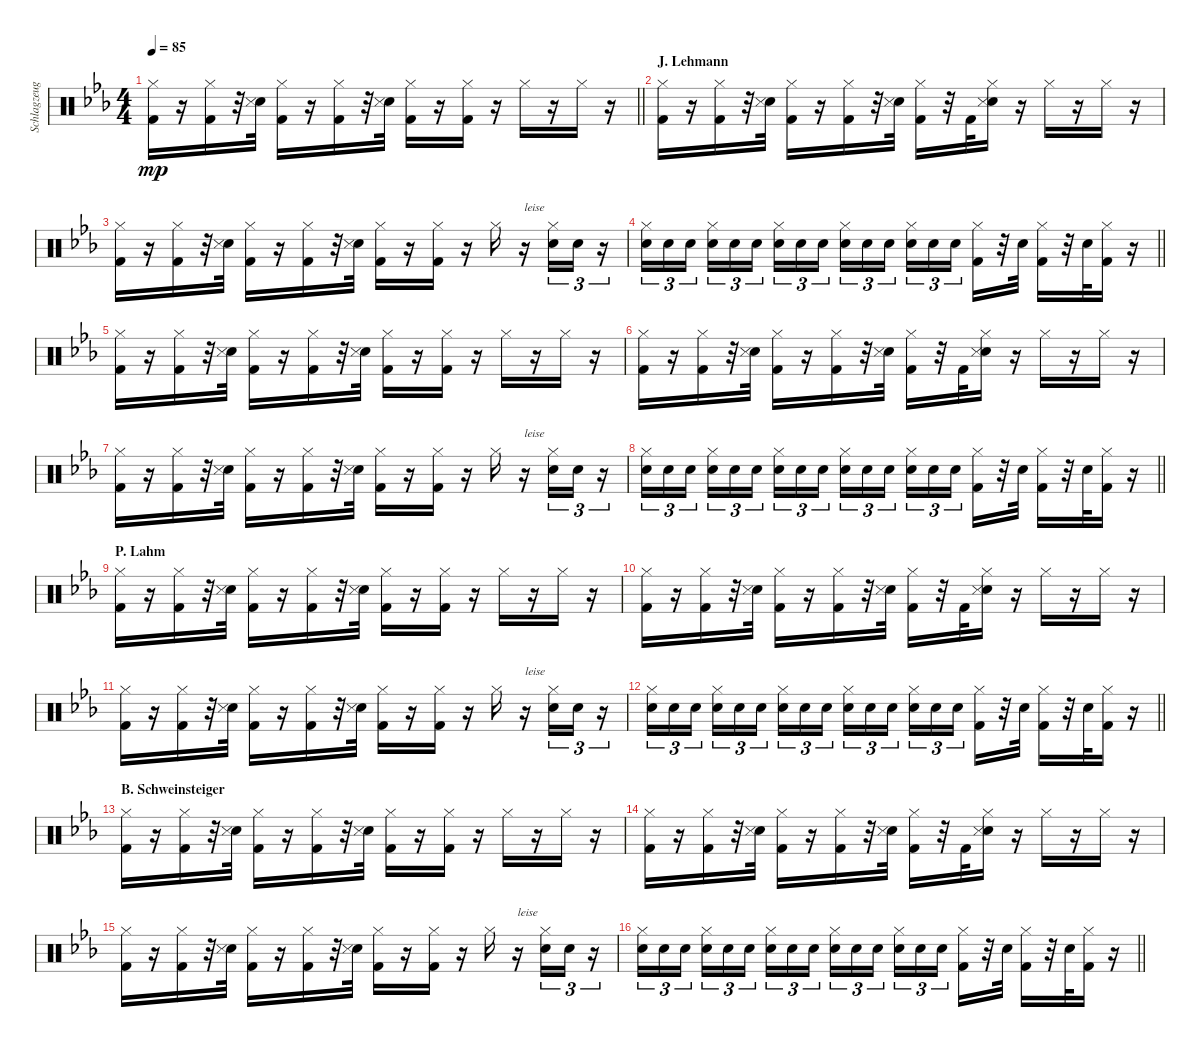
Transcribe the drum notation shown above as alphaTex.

\track ("Schlagzeug" "Schlagzeug") {instrument percussion}
\staff {score}
\articulation defaults
\ts (4 4)
\tempo 85
\clef neutral
\barLineRight lightlight
\ks cminor
("Hi-Hat (closed)" "Kick (hit) 2").16{dy mp} r.16 ("Hi-Hat (closed)" "Kick (hit) 2").16 r.32 ("Electric Snare (hit)" "Snare (side stick) 3").32 ("Hi-Hat (closed)" "Kick (hit) 2").16 r.16 ("Hi-Hat (closed)" "Kick (hit) 2").16 r.32 ("Electric Snare (hit)" "Snare (side stick) 3").32 ("Hi-Hat (closed)" "Kick (hit) 2").16 r.16 ("Hi-Hat (closed)" "Kick (hit) 2").16 r.16 "Hi-Hat (closed)".16 r.16 "Hi-Hat (closed)".16 r.16 |
\section ("" "J. Lehmann")
("Hi-Hat (closed)" "Kick (hit) 2").16 r.16 ("Hi-Hat (closed)" "Kick (hit) 2").16 r.32 ("Electric Snare (hit)" "Snare (side stick) 3").32 ("Hi-Hat (closed)" "Kick (hit) 2").16 r.16 ("Hi-Hat (closed)" "Kick (hit) 2").16 r.32 ("Electric Snare (hit)" "Snare (side stick) 3").32 ("Hi-Hat (closed)" "Kick (hit) 2").16 r.32 "Kick (hit) 2".32 ("Hi-Hat (closed)" "Electric Snare (hit)" "Snare (side stick) 3").16 r.16 "Hi-Hat (closed)".16 r.16 "Hi-Hat (closed)".16 r.16 |
("Hi-Hat (closed)" "Kick (hit) 2").16 r.16 ("Hi-Hat (closed)" "Kick (hit) 2").16 r.32 ("Electric Snare (hit)" "Snare (side stick) 3").32 ("Hi-Hat (closed)" "Kick (hit) 2").16 r.16 ("Hi-Hat (closed)" "Kick (hit) 2").16 r.32 ("Electric Snare (hit)" "Snare (side stick) 3").32 ("Hi-Hat (closed)" "Kick (hit) 2").16 r.16 ("Hi-Hat (closed)" "Kick (hit) 2").16 r.16 "Hi-Hat (closed)".16 r.16{txt "leise" volume 5} ("Hi-Hat (closed)" "Electric Snare (hit)").16{tu (3 2)} "Electric Snare (hit)".16{tu (3 2)} r.16{tu (3 2)} |
\barLineRight lightlight
("Hi-Hat (closed)" "Electric Snare (hit)").16{tu (3 2) volume 15} "Electric Snare (hit)".16{tu (3 2)} "Electric Snare (hit)".16{tu (3 2) beam splitsecondary} ("Hi-Hat (closed)" "Electric Snare (hit)").16{tu (3 2)} "Electric Snare (hit)".16{tu (3 2)} "Electric Snare (hit)".16{tu (3 2)} ("Hi-Hat (closed)" "Electric Snare (hit)").16{tu (3 2)} "Electric Snare (hit)".16{tu (3 2)} "Electric Snare (hit)".16{tu (3 2) beam splitsecondary} ("Hi-Hat (closed)" "Electric Snare (hit)").16{tu (3 2)} "Electric Snare (hit)".16{tu (3 2)} "Electric Snare (hit)".16{tu (3 2)} ("Hi-Hat (closed)" "Electric Snare (hit)").16{tu (3 2)} "Electric Snare (hit)".16{tu (3 2)} "Electric Snare (hit)".16{tu (3 2) beam splitsecondary} ("Hi-Hat (closed)" "Kick (hit) 2").16 r.32 "Electric Snare (hit)".32 ("Hi-Hat (closed)" "Kick (hit) 2").16 r.32 "Electric Snare (hit)".32 ("Hi-Hat (closed)" "Kick (hit) 2").16 r.16 |
("Hi-Hat (closed)" "Kick (hit) 2").16 r.16 ("Hi-Hat (closed)" "Kick (hit) 2").16 r.32 ("Electric Snare (hit)" "Snare (side stick) 3").32 ("Hi-Hat (closed)" "Kick (hit) 2").16 r.16 ("Hi-Hat (closed)" "Kick (hit) 2").16 r.32 ("Electric Snare (hit)" "Snare (side stick) 3").32 ("Hi-Hat (closed)" "Kick (hit) 2").16 r.16 ("Hi-Hat (closed)" "Kick (hit) 2").16 r.16 "Hi-Hat (closed)".16 r.16 "Hi-Hat (closed)".16 r.16 |
("Hi-Hat (closed)" "Kick (hit) 2").16 r.16 ("Hi-Hat (closed)" "Kick (hit) 2").16 r.32 ("Electric Snare (hit)" "Snare (side stick) 3").32 ("Hi-Hat (closed)" "Kick (hit) 2").16 r.16 ("Hi-Hat (closed)" "Kick (hit) 2").16 r.32 ("Electric Snare (hit)" "Snare (side stick) 3").32 ("Hi-Hat (closed)" "Kick (hit) 2").16 r.32 "Kick (hit) 2".32 ("Hi-Hat (closed)" "Electric Snare (hit)" "Snare (side stick) 3").16 r.16 "Hi-Hat (closed)".16 r.16 "Hi-Hat (closed)".16 r.16 |
("Hi-Hat (closed)" "Kick (hit) 2").16 r.16 ("Hi-Hat (closed)" "Kick (hit) 2").16 r.32 ("Electric Snare (hit)" "Snare (side stick) 3").32 ("Hi-Hat (closed)" "Kick (hit) 2").16 r.16 ("Hi-Hat (closed)" "Kick (hit) 2").16 r.32 ("Electric Snare (hit)" "Snare (side stick) 3").32 ("Hi-Hat (closed)" "Kick (hit) 2").16 r.16 ("Hi-Hat (closed)" "Kick (hit) 2").16 r.16 "Hi-Hat (closed)".16 r.16{txt "leise" volume 5} ("Hi-Hat (closed)" "Electric Snare (hit)").16{tu (3 2)} "Electric Snare (hit)".16{tu (3 2)} r.16{tu (3 2)} |
\barLineRight lightlight
("Hi-Hat (closed)" "Electric Snare (hit)").16{tu (3 2) volume 15} "Electric Snare (hit)".16{tu (3 2)} "Electric Snare (hit)".16{tu (3 2) beam splitsecondary} ("Hi-Hat (closed)" "Electric Snare (hit)").16{tu (3 2)} "Electric Snare (hit)".16{tu (3 2)} "Electric Snare (hit)".16{tu (3 2)} ("Hi-Hat (closed)" "Electric Snare (hit)").16{tu (3 2)} "Electric Snare (hit)".16{tu (3 2)} "Electric Snare (hit)".16{tu (3 2) beam splitsecondary} ("Hi-Hat (closed)" "Electric Snare (hit)").16{tu (3 2)} "Electric Snare (hit)".16{tu (3 2)} "Electric Snare (hit)".16{tu (3 2)} ("Hi-Hat (closed)" "Electric Snare (hit)").16{tu (3 2)} "Electric Snare (hit)".16{tu (3 2)} "Electric Snare (hit)".16{tu (3 2) beam splitsecondary} ("Hi-Hat (closed)" "Kick (hit) 2").16 r.32 "Electric Snare (hit)".32 ("Hi-Hat (closed)" "Kick (hit) 2").16 r.32 "Electric Snare (hit)".32 ("Hi-Hat (closed)" "Kick (hit) 2").16 r.16 |
\section ("" "P. Lahm")
("Hi-Hat (closed)" "Kick (hit) 2").16 r.16 ("Hi-Hat (closed)" "Kick (hit) 2").16 r.32 ("Electric Snare (hit)" "Snare (side stick) 3").32 ("Hi-Hat (closed)" "Kick (hit) 2").16 r.16 ("Hi-Hat (closed)" "Kick (hit) 2").16 r.32 ("Electric Snare (hit)" "Snare (side stick) 3").32 ("Hi-Hat (closed)" "Kick (hit) 2").16 r.16 ("Hi-Hat (closed)" "Kick (hit) 2").16 r.16 "Hi-Hat (closed)".16 r.16 "Hi-Hat (closed)".16 r.16 |
("Hi-Hat (closed)" "Kick (hit) 2").16 r.16 ("Hi-Hat (closed)" "Kick (hit) 2").16 r.32 ("Electric Snare (hit)" "Snare (side stick) 3").32 ("Hi-Hat (closed)" "Kick (hit) 2").16 r.16 ("Hi-Hat (closed)" "Kick (hit) 2").16 r.32 ("Electric Snare (hit)" "Snare (side stick) 3").32 ("Hi-Hat (closed)" "Kick (hit) 2").16 r.32 "Kick (hit) 2".32 ("Hi-Hat (closed)" "Electric Snare (hit)" "Snare (side stick) 3").16 r.16 "Hi-Hat (closed)".16 r.16 "Hi-Hat (closed)".16 r.16 |
("Hi-Hat (closed)" "Kick (hit) 2").16 r.16 ("Hi-Hat (closed)" "Kick (hit) 2").16 r.32 ("Electric Snare (hit)" "Snare (side stick) 3").32 ("Hi-Hat (closed)" "Kick (hit) 2").16 r.16 ("Hi-Hat (closed)" "Kick (hit) 2").16 r.32 ("Electric Snare (hit)" "Snare (side stick) 3").32 ("Hi-Hat (closed)" "Kick (hit) 2").16 r.16 ("Hi-Hat (closed)" "Kick (hit) 2").16 r.16 "Hi-Hat (closed)".16 r.16{txt "leise" volume 5} ("Hi-Hat (closed)" "Electric Snare (hit)").16{tu (3 2)} "Electric Snare (hit)".16{tu (3 2)} r.16{tu (3 2)} |
\barLineRight lightlight
("Hi-Hat (closed)" "Electric Snare (hit)").16{tu (3 2) volume 15} "Electric Snare (hit)".16{tu (3 2)} "Electric Snare (hit)".16{tu (3 2) beam splitsecondary} ("Hi-Hat (closed)" "Electric Snare (hit)").16{tu (3 2)} "Electric Snare (hit)".16{tu (3 2)} "Electric Snare (hit)".16{tu (3 2)} ("Hi-Hat (closed)" "Electric Snare (hit)").16{tu (3 2)} "Electric Snare (hit)".16{tu (3 2)} "Electric Snare (hit)".16{tu (3 2) beam splitsecondary} ("Hi-Hat (closed)" "Electric Snare (hit)").16{tu (3 2)} "Electric Snare (hit)".16{tu (3 2)} "Electric Snare (hit)".16{tu (3 2)} ("Hi-Hat (closed)" "Electric Snare (hit)").16{tu (3 2)} "Electric Snare (hit)".16{tu (3 2)} "Electric Snare (hit)".16{tu (3 2) beam splitsecondary} ("Hi-Hat (closed)" "Kick (hit) 2").16 r.32 "Electric Snare (hit)".32 ("Hi-Hat (closed)" "Kick (hit) 2").16 r.32 "Electric Snare (hit)".32 ("Hi-Hat (closed)" "Kick (hit) 2").16 r.16 |
\section ("" "B. Schweinsteiger")
("Hi-Hat (closed)" "Kick (hit) 2").16 r.16 ("Hi-Hat (closed)" "Kick (hit) 2").16 r.32 ("Electric Snare (hit)" "Snare (side stick) 3").32 ("Hi-Hat (closed)" "Kick (hit) 2").16 r.16 ("Hi-Hat (closed)" "Kick (hit) 2").16 r.32 ("Electric Snare (hit)" "Snare (side stick) 3").32 ("Hi-Hat (closed)" "Kick (hit) 2").16 r.16 ("Hi-Hat (closed)" "Kick (hit) 2").16 r.16 "Hi-Hat (closed)".16 r.16 "Hi-Hat (closed)".16 r.16 |
("Hi-Hat (closed)" "Kick (hit) 2").16 r.16 ("Hi-Hat (closed)" "Kick (hit) 2").16 r.32 ("Electric Snare (hit)" "Snare (side stick) 3").32 ("Hi-Hat (closed)" "Kick (hit) 2").16 r.16 ("Hi-Hat (closed)" "Kick (hit) 2").16 r.32 ("Electric Snare (hit)" "Snare (side stick) 3").32 ("Hi-Hat (closed)" "Kick (hit) 2").16 r.32 "Kick (hit) 2".32 ("Hi-Hat (closed)" "Electric Snare (hit)" "Snare (side stick) 3").16 r.16 "Hi-Hat (closed)".16 r.16 "Hi-Hat (closed)".16 r.16 |
("Hi-Hat (closed)" "Kick (hit) 2").16 r.16 ("Hi-Hat (closed)" "Kick (hit) 2").16 r.32 ("Electric Snare (hit)" "Snare (side stick) 3").32 ("Hi-Hat (closed)" "Kick (hit) 2").16 r.16 ("Hi-Hat (closed)" "Kick (hit) 2").16 r.32 ("Electric Snare (hit)" "Snare (side stick) 3").32 ("Hi-Hat (closed)" "Kick (hit) 2").16 r.16 ("Hi-Hat (closed)" "Kick (hit) 2").16 r.16 "Hi-Hat (closed)".16 r.16{txt "leise" volume 5} ("Hi-Hat (closed)" "Electric Snare (hit)").16{tu (3 2)} "Electric Snare (hit)".16{tu (3 2)} r.16{tu (3 2)} |
\barLineRight lightlight
("Hi-Hat (closed)" "Electric Snare (hit)").16{tu (3 2) volume 15} "Electric Snare (hit)".16{tu (3 2)} "Electric Snare (hit)".16{tu (3 2) beam splitsecondary} ("Hi-Hat (closed)" "Electric Snare (hit)").16{tu (3 2)} "Electric Snare (hit)".16{tu (3 2)} "Electric Snare (hit)".16{tu (3 2)} ("Hi-Hat (closed)" "Electric Snare (hit)").16{tu (3 2)} "Electric Snare (hit)".16{tu (3 2)} "Electric Snare (hit)".16{tu (3 2) beam splitsecondary} ("Hi-Hat (closed)" "Electric Snare (hit)").16{tu (3 2)} "Electric Snare (hit)".16{tu (3 2)} "Electric Snare (hit)".16{tu (3 2)} ("Hi-Hat (closed)" "Electric Snare (hit)").16{tu (3 2)} "Electric Snare (hit)".16{tu (3 2)} "Electric Snare (hit)".16{tu (3 2) beam splitsecondary} ("Hi-Hat (closed)" "Kick (hit) 2").16 r.32 "Electric Snare (hit)".32 ("Hi-Hat (closed)" "Kick (hit) 2").16 r.32 "Electric Snare (hit)".32 ("Hi-Hat (closed)" "Kick (hit) 2").16 r.16
